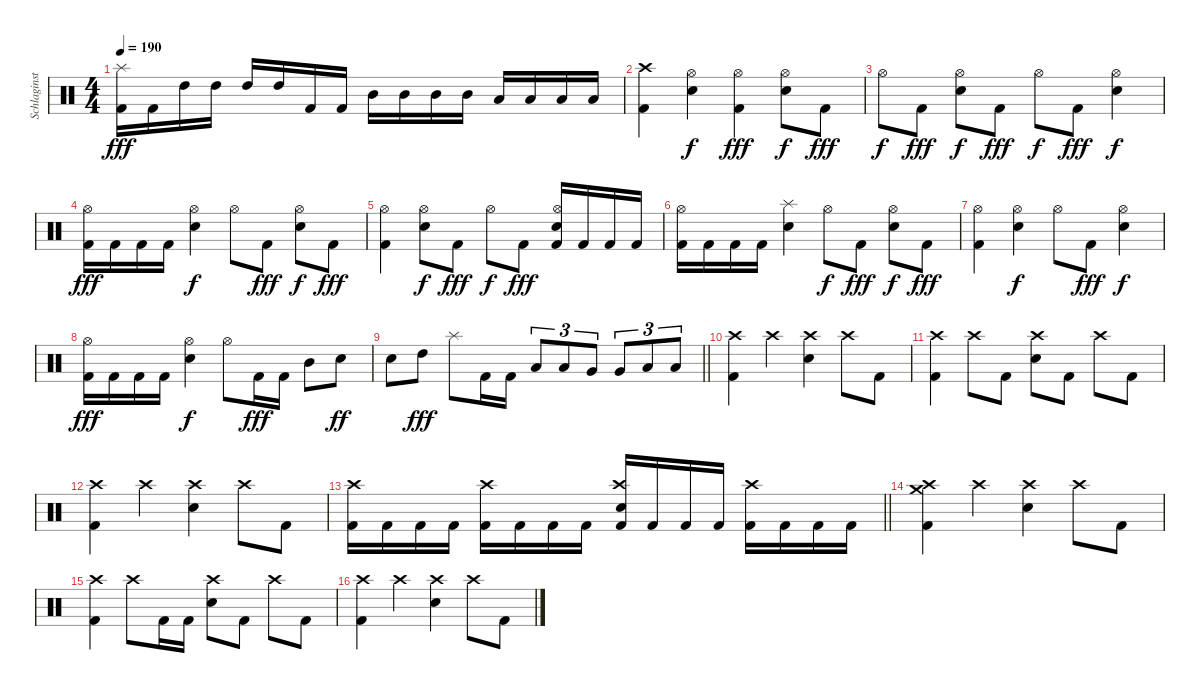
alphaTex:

\track ("Schlaginstrumente - Auswahl" "Schlaginst") {instrument percussion}
\staff {score}
\articulation defaults
\ts (4 4)
\tempo 190
\clef neutral
\ks c
("Splash (hit)" "Kick (hit) 2").16{dy fff} "Kick (hit) 2".16 "High Tom (hit)".16 "High Tom (hit)".16 "High Tom (hit)".16 "High Tom (hit)".16 "Kick (hit) 2".16 "Kick (hit) 2".16 "Mid Tom (hit)".16 "Mid Tom (hit)".16 "Mid Tom (hit)".16 "Mid Tom (hit)".16 "Low Tom (hit)".16 "Low Tom (hit)".16 "Low Tom (hit)".16 "Low Tom (hit)".16 |
("Crash high (hit)" "Kick (hit) 2").4 ("Hi-Hat (open)" "Snare (hit) 2").4{dy f} ("Hi-Hat (open)" "Kick (hit) 2").4{dy fff} ("Hi-Hat (open)" "Snare (hit) 2").8{dy f} "Kick (hit) 2".8{dy fff} |
"Hi-Hat (open)".8{dy f} "Kick (hit) 2".8{dy fff} ("Hi-Hat (open)" "Snare (hit) 2").8{dy f} "Kick (hit) 2".8{dy fff} "Hi-Hat (open)".8{dy f} "Kick (hit) 2".8{dy fff} ("Hi-Hat (open)" "Snare (hit) 2").4{dy f} |
("Hi-Hat (open)" "Kick (hit) 2").16{dy fff} "Kick (hit) 2".16 "Kick (hit) 2".16 "Kick (hit) 2".16 ("Hi-Hat (open)" "Snare (hit) 2").4{dy f} "Hi-Hat (open)".8 "Kick (hit) 2".8{dy fff} ("Hi-Hat (open)" "Snare (hit) 2").8{dy f} "Kick (hit) 2".8{dy fff} |
("Hi-Hat (open)" "Kick (hit) 2").4 ("Hi-Hat (open)" "Snare (hit) 2").8{dy f} "Kick (hit) 2".8{dy fff} "Hi-Hat (open)".8{dy f} "Kick (hit) 2".8{dy fff} ("Hi-Hat (open)" "Snare (hit) 2" "Kick (hit) 2").16 "Kick (hit) 2".16 "Kick (hit) 2".16 "Kick (hit) 2".16 |
("Hi-Hat (open)" "Kick (hit) 2").16 "Kick (hit) 2".16 "Kick (hit) 2".16 "Kick (hit) 2".16 ("Splash (hit)" "Snare (hit) 2").4 "Hi-Hat (open)".8{dy f} "Kick (hit) 2".8{dy fff} ("Hi-Hat (open)" "Snare (hit) 2").8{dy f} "Kick (hit) 2".8{dy fff} |
("Hi-Hat (open)" "Kick (hit) 2").4 ("Hi-Hat (open)" "Snare (hit) 2").4{dy f} "Hi-Hat (open)".8 "Kick (hit) 2".8{dy fff} ("Hi-Hat (open)" "Snare (hit) 2").4{dy f} |
("Hi-Hat (open)" "Kick (hit) 2").16{dy fff} "Kick (hit) 2".16 "Kick (hit) 2".16 "Kick (hit) 2".16 ("Hi-Hat (open)" "Snare (hit) 2").4{dy f} "Hi-Hat (open)".8 "Kick (hit) 2".16{dy fff} "Kick (hit) 2".16 "Mid Tom (hit)".8 "Snare (hit) 2".8{dy ff} |
\barLineRight lightlight "Snare (hit) 2".8 "High Tom (hit)".8{dy fff} "Splash (hit)".8 "Kick (hit) 2".16 "Kick (hit) 2".16 "Low Tom (hit)".8{tu (3 2)} "Low Tom (hit)".8{tu (3 2)} "Very Low Tom (hit)".8{tu (3 2)} "Very Low Tom (hit)".8{tu (3 2)} "Low Floor Tom (hit)".8{tu (3 2)} "Low Floor Tom (hit)".8{tu (3 2)}
|
("Crash high (hit)" "Kick (hit) 2").4 "Crash high (hit)".4 ("Crash high (hit)" "Snare (hit) 2").4 "Crash high (hit)".8 "Kick (hit) 2".8 |
("Crash high (hit)" "Kick (hit) 2").4 "Crash high (hit)".8 "Kick (hit) 2".8 ("Crash high (hit)" "Snare (hit) 2").8 "Kick (hit) 2".8 "Crash high (hit)".8 "Kick (hit) 2".8 |
("Crash high (hit)" "Kick (hit) 2").4 "Crash high (hit)".4 ("Crash high (hit)" "Snare (hit) 2").4 "Crash high (hit)".8 "Kick (hit) 2".8 |
\barLineRight lightlight
("Crash high (hit)" "Kick (hit) 2").16 "Kick (hit) 2".16 "Kick (hit) 2".16 "Kick (hit) 2".16 ("Crash high (hit)" "Kick (hit) 2").16 "Kick (hit) 2".16 "Kick (hit) 2".16 "Kick (hit) 2".16 ("Crash high (hit)" "Snare (hit) 2" "Kick (hit) 2").16 "Kick (hit) 2".16 "Kick (hit) 2".16 "Kick (hit) 2".16 ("Crash high (hit)" "Kick (hit) 2").16 "Kick (hit) 2".16 "Kick (hit) 2".16 "Kick (hit) 2".16 |
("Crash high (hit)" "Crash medium (hit)" "Kick (hit) 2").4 "Crash high (hit)".4 ("Crash high (hit)" "Snare (hit) 2").4 "Crash high (hit)".8 "Kick (hit) 2".8 |
("Crash high (hit)" "Kick (hit) 2").4 "Crash high (hit)".8 "Kick (hit) 2".16 "Kick (hit) 2".16 ("Crash high (hit)" "Snare (hit) 2").8 "Kick (hit) 2".8 "Crash high (hit)".8 "Kick (hit) 2".8 |
("Crash high (hit)" "Kick (hit) 2").4 "Crash high (hit)".4 ("Crash high (hit)" "Snare (hit) 2").4 "Crash high (hit)".8 "Kick (hit) 2".8
